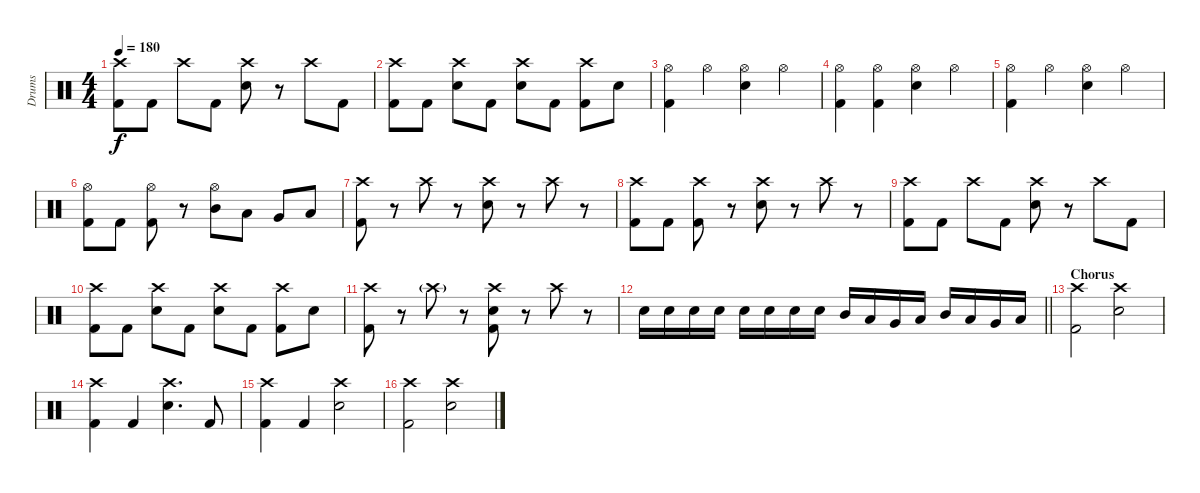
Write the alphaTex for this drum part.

\track ("Drums" "Drums") {instrument percussion}
\staff {score}
\articulation defaults
\ts (4 4)
\tempo 180
\clef neutral
\ks c
("Crash high (hit)" "Kick (hit) 2").8{dy f} "Kick (hit) 2".8 "Crash high (hit)".8 "Kick (hit) 2".8 ("Crash high (hit)" "Electric Snare (hit)").8 r.8 "Crash high (hit)".8 "Kick (hit) 2".8 |
("Crash high (hit)" "Kick (hit) 2").8 "Kick (hit) 2".8 ("Electric Snare (hit)" "Crash high (hit)").8 "Kick (hit) 2".8 ("Electric Snare (hit)" "Crash high (hit)").8 "Kick (hit) 2".8 ("Crash high (hit)" "Kick (hit) 2").8 "Electric Snare (hit)".8 |
("Kick (hit) 2" "Hi-Hat (open)").4 "Hi-Hat (open)".4 ("Hi-Hat (open)" "Electric Snare (hit)").4 "Hi-Hat (open)".4 |
("Hi-Hat (open)" "Kick (hit) 2").4 ("Hi-Hat (open)" "Kick (hit) 2").4 ("Hi-Hat (open)" "Electric Snare (hit)").4 "Hi-Hat (open)".4 |
("Kick (hit) 2" "Hi-Hat (open)").4 "Hi-Hat (open)".4 ("Hi-Hat (open)" "Electric Snare (hit)").4 "Hi-Hat (open)".4 |
("Kick (hit) 2" "Hi-Hat (open)").8 "Kick (hit) 2".8 ("Kick (hit) 2" "Hi-Hat (open)").8 r.8 ("Hi-Hat (open)" "Mid Tom (hit)").8 "Low Tom (hit)".8 "Very Low Tom (hit)".8 "Low Floor Tom (hit)".8 |
("Crash high (hit)" "Kick (hit) 2").8 r.8 "Crash high (hit)".8 r.8 ("Crash high (hit)" "Electric Snare (hit)").8 r.8 "Crash high (hit)".8 r.8 |
("Crash high (hit)" "Kick (hit) 2").8 "Kick (hit) 2".8 ("Crash high (hit)" "Kick (hit) 2").8 r.8 ("Crash high (hit)" "Electric Snare (hit)").8 r.8 "Crash high (hit)".8 r.8 |
("Crash high (hit)" "Kick (hit) 2").8 "Kick (hit) 2".8 "Crash high (hit)".8 "Kick (hit) 2".8 ("Crash high (hit)" "Electric Snare (hit)").8 r.8 "Crash high (hit)".8 "Kick (hit) 2".8 |
("Crash high (hit)" "Kick (hit) 2").8 "Kick (hit) 2".8 ("Electric Snare (hit)" "Crash high (hit)").8 "Kick (hit) 2".8 ("Electric Snare (hit)" "Crash high (hit)").8 "Kick (hit) 2".8 ("Crash high (hit)" "Kick (hit) 2").8 "Electric Snare (hit)".8 |
("Crash high (hit)" "Kick (hit) 2").8 r.8 "Crash high (hit)"{g}.8 r.8 ("Crash high (hit)" "Kick (hit) 2" "Electric Snare (hit)").8 r.8 "Crash high (hit)".8 r.8 |
\barLineRight lightlight "Electric Snare (hit)".16 "Electric Snare (hit)".16 "Electric Snare (hit)".16 "Electric Snare (hit)".16 "Electric Snare (hit)".16 "Electric Snare (hit)".16 "Electric Snare (hit)".16 "Electric Snare (hit)".16 "Mid Tom (hit)".16 "Low Tom (hit)".16 "Very Low Tom (hit)".16 "Low Floor Tom (hit)".16 "Mid Tom (hit)".16 "Low Tom (hit)".16 "Very Low Tom (hit)".16 "Low Floor Tom (hit)".16
|
\section ("" "Chorus")
("Kick (hit) 2" "Crash high (hit)").2 ("Crash high (hit)" "Electric Snare (hit)").2 |
("Crash high (hit)" "Kick (hit) 2").4 "Kick (hit) 2".4 ("Crash high (hit)" "Electric Snare (hit)").4{d} "Kick (hit) 2".8 |
("Crash high (hit)" "Kick (hit) 2").4 "Kick (hit) 2".4 ("Crash high (hit)" "Electric Snare (hit)").2 |
("Crash high (hit)" "Kick (hit) 2").2 ("Crash high (hit)" "Electric Snare (hit)").2
